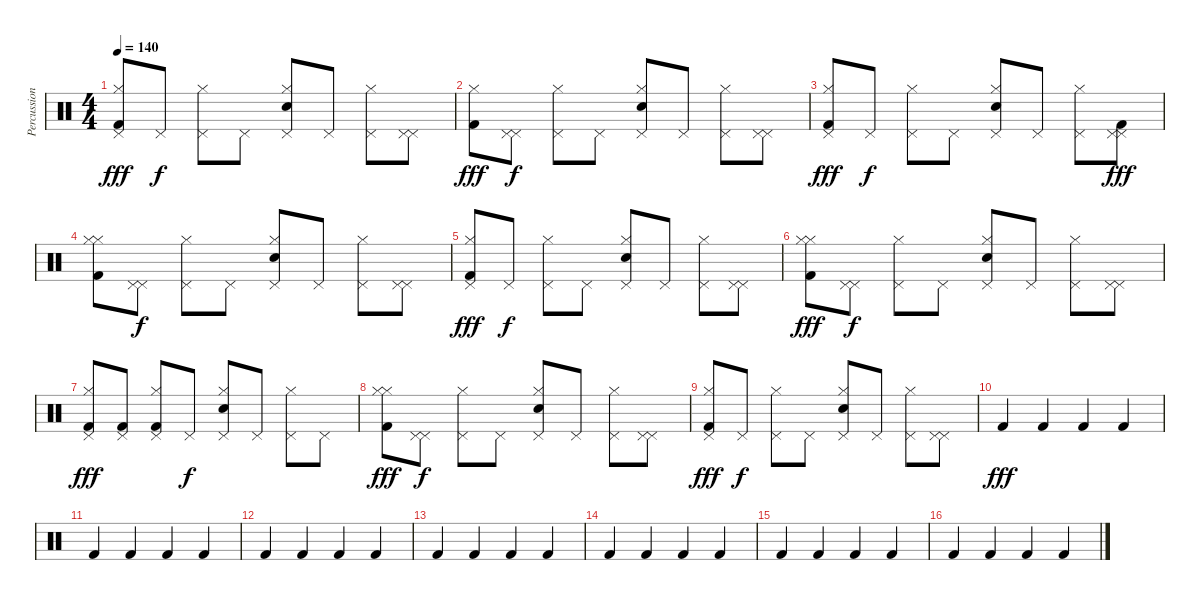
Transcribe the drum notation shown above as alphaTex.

\track ("Percussion" "Percussion") {instrument percussion}
\staff {score}
\articulation defaults
\ts (4 4)
\tempo 140
\clef neutral
\ks c
("Pedal Hi-Hat (hit)" "Hi-Hat (closed)" "Kick (hit) 2").8{dy fff} "Pedal Hi-Hat (hit)".8{dy f} ("Pedal Hi-Hat (hit)" "Hi-Hat (closed)").8 "Pedal Hi-Hat (hit)".8 ("Pedal Hi-Hat (hit)" "Hi-Hat (closed)" "Electric Snare (hit)").8 "Pedal Hi-Hat (hit)".8 ("Pedal Hi-Hat (hit)" "Hi-Hat (closed)").8 ("Pedal Hi-Hat (hit)" "Pedal Hi-Hat (hit)").8 |
("Hi-Hat (closed)" "Kick (hit) 2").8{dy fff} ("Pedal Hi-Hat (hit)" "Pedal Hi-Hat (hit)").8{dy f} ("Pedal Hi-Hat (hit)" "Hi-Hat (closed)").8 "Pedal Hi-Hat (hit)".8 ("Pedal Hi-Hat (hit)" "Hi-Hat (closed)" "Electric Snare (hit)").8 "Pedal Hi-Hat (hit)".8 ("Pedal Hi-Hat (hit)" "Hi-Hat (closed)").8 ("Pedal Hi-Hat (hit)" "Pedal Hi-Hat (hit)").8 |
("Pedal Hi-Hat (hit)" "Hi-Hat (closed)" "Kick (hit) 2").8{dy fff} "Pedal Hi-Hat (hit)".8{dy f} ("Pedal Hi-Hat (hit)" "Hi-Hat (closed)").8 "Pedal Hi-Hat (hit)".8 ("Pedal Hi-Hat (hit)" "Hi-Hat (closed)" "Electric Snare (hit)").8 "Pedal Hi-Hat (hit)".8 ("Pedal Hi-Hat (hit)" "Hi-Hat (closed)").8 ("Pedal Hi-Hat (hit)" "Pedal Hi-Hat (hit)" "Kick (hit) 2").8{dy fff} |
("Hi-Hat (closed)" "Hi-Hat (closed)" "Kick (hit) 2").8 ("Pedal Hi-Hat (hit)" "Pedal Hi-Hat (hit)").8{dy f} ("Pedal Hi-Hat (hit)" "Hi-Hat (closed)").8 "Pedal Hi-Hat (hit)".8 ("Pedal Hi-Hat (hit)" "Hi-Hat (closed)" "Electric Snare (hit)").8 "Pedal Hi-Hat (hit)".8 ("Pedal Hi-Hat (hit)" "Hi-Hat (closed)").8 ("Pedal Hi-Hat (hit)" "Pedal Hi-Hat (hit)").8 |
("Pedal Hi-Hat (hit)" "Hi-Hat (closed)" "Kick (hit) 2").8{dy fff} "Pedal Hi-Hat (hit)".8{dy f} ("Pedal Hi-Hat (hit)" "Hi-Hat (closed)").8 "Pedal Hi-Hat (hit)".8 ("Pedal Hi-Hat (hit)" "Hi-Hat (closed)" "Electric Snare (hit)").8 "Pedal Hi-Hat (hit)".8 ("Pedal Hi-Hat (hit)" "Hi-Hat (closed)").8 ("Pedal Hi-Hat (hit)" "Pedal Hi-Hat (hit)").8 |
("Hi-Hat (closed)" "Hi-Hat (closed)" "Kick (hit) 2").8{dy fff} ("Pedal Hi-Hat (hit)" "Pedal Hi-Hat (hit)").8{dy f} ("Pedal Hi-Hat (hit)" "Hi-Hat (closed)").8 "Pedal Hi-Hat (hit)".8 ("Pedal Hi-Hat (hit)" "Hi-Hat (closed)" "Electric Snare (hit)").8 "Pedal Hi-Hat (hit)".8 ("Pedal Hi-Hat (hit)" "Hi-Hat (closed)").8 ("Pedal Hi-Hat (hit)" "Pedal Hi-Hat (hit)").8 |
("Pedal Hi-Hat (hit)" "Hi-Hat (closed)" "Kick (hit) 2").8{dy fff} ("Pedal Hi-Hat (hit)" "Kick (hit) 2").8 ("Pedal Hi-Hat (hit)" "Hi-Hat (closed)" "Kick (hit) 2").8 "Pedal Hi-Hat (hit)".8{dy f} ("Pedal Hi-Hat (hit)" "Hi-Hat (closed)" "Electric Snare (hit)").8 "Pedal Hi-Hat (hit)".8 ("Pedal Hi-Hat (hit)" "Hi-Hat (closed)").8 "Pedal Hi-Hat (hit)".8 |
("Hi-Hat (closed)" "Hi-Hat (closed)" "Kick (hit) 2").8{dy fff} ("Pedal Hi-Hat (hit)" "Pedal Hi-Hat (hit)").8{dy f} ("Pedal Hi-Hat (hit)" "Hi-Hat (closed)").8 "Pedal Hi-Hat (hit)".8 ("Pedal Hi-Hat (hit)" "Hi-Hat (closed)" "Electric Snare (hit)").8 "Pedal Hi-Hat (hit)".8 ("Pedal Hi-Hat (hit)" "Hi-Hat (closed)").8 ("Pedal Hi-Hat (hit)" "Pedal Hi-Hat (hit)").8 |
("Pedal Hi-Hat (hit)" "Hi-Hat (closed)" "Kick (hit) 2").8{dy fff} "Pedal Hi-Hat (hit)".8{dy f} ("Pedal Hi-Hat (hit)" "Hi-Hat (closed)").8 "Pedal Hi-Hat (hit)".8 ("Pedal Hi-Hat (hit)" "Hi-Hat (closed)" "Electric Snare (hit)").8 "Pedal Hi-Hat (hit)".8 ("Pedal Hi-Hat (hit)" "Hi-Hat (closed)").8 ("Pedal Hi-Hat (hit)" "Pedal Hi-Hat (hit)").8 |
"Kick (hit) 2".4{dy fff} "Kick (hit) 2".4 "Kick (hit) 2".4 "Kick (hit) 2".4 |
"Kick (hit) 2".4 "Kick (hit) 2".4 "Kick (hit) 2".4 "Kick (hit) 2".4 |
"Kick (hit) 2".4 "Kick (hit) 2".4 "Kick (hit) 2".4 "Kick (hit) 2".4 |
"Kick (hit) 2".4 "Kick (hit) 2".4 "Kick (hit) 2".4 "Kick (hit) 2".4 |
"Kick (hit) 2".4 "Kick (hit) 2".4 "Kick (hit) 2".4 "Kick (hit) 2".4 |
"Kick (hit) 2".4 "Kick (hit) 2".4 "Kick (hit) 2".4 "Kick (hit) 2".4 |
"Kick (hit) 2".4 "Kick (hit) 2".4 "Kick (hit) 2".4 "Kick (hit) 2".4
